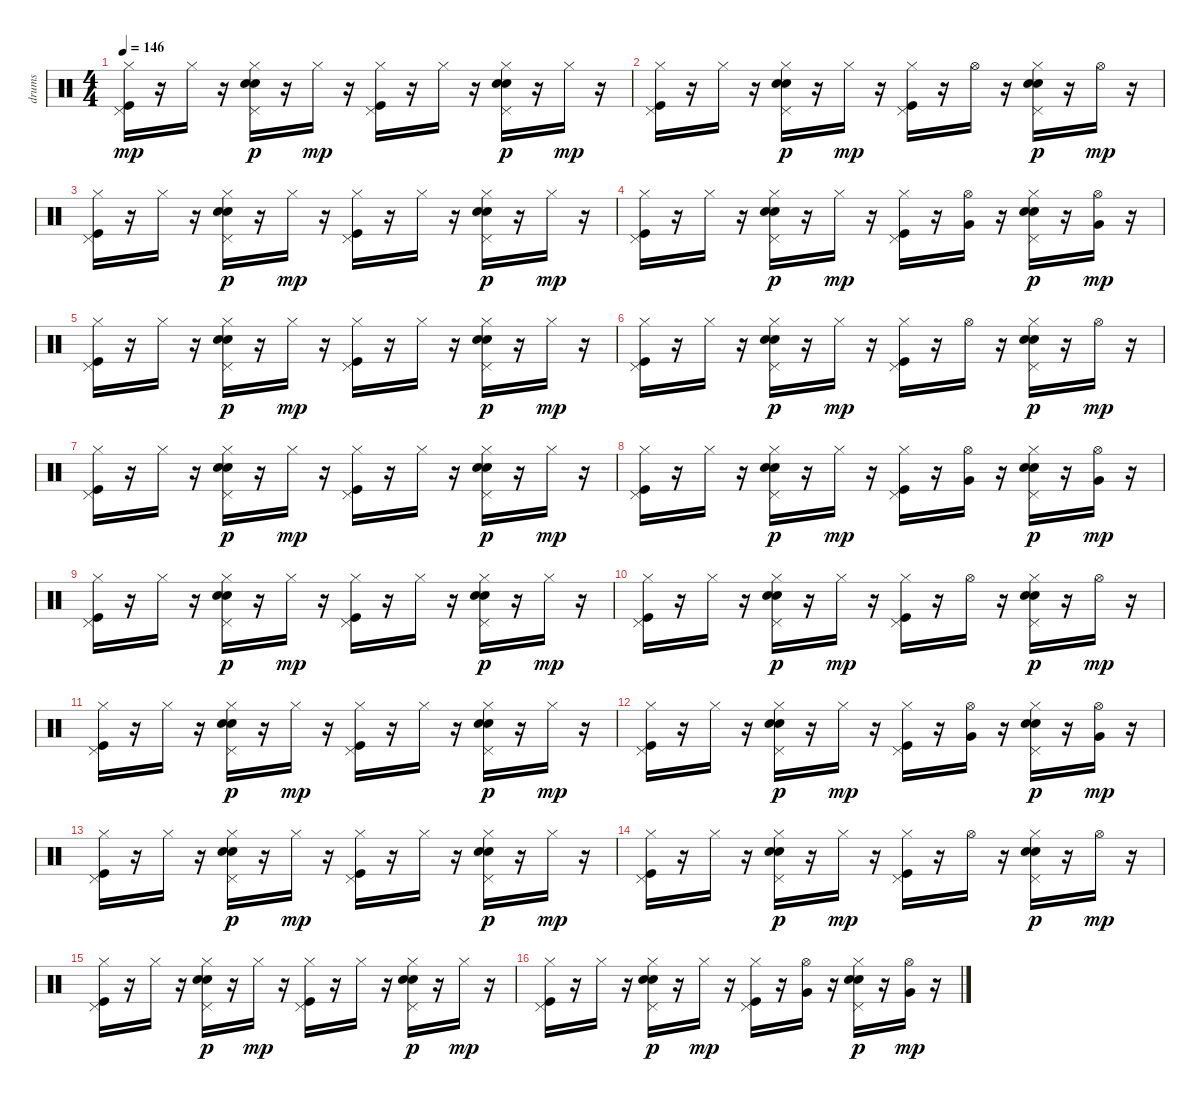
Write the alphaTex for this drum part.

\track ("drums" "drums") {instrument percussion}
\staff {score}
\articulation defaults
\ts (4 4)
\tempo 146
\clef neutral
\ks c
("Kick (hit)" "Pedal Hi-Hat (hit)" "Hi-Hat (closed)").16{dy mp} r.16 "Hi-Hat (closed)".16 r.16 ("Pedal Hi-Hat (hit)" "Snare (hit) 2" "Hi-Hat (closed)" "Electric Snare (hit)").16{dy p} r.16 "Hi-Hat (closed)".16{dy mp} r.16 ("Kick (hit)" "Pedal Hi-Hat (hit)" "Hi-Hat (closed)").16 r.16 "Hi-Hat (closed)".16 r.16 ("Pedal Hi-Hat (hit)" "Snare (hit) 2" "Hi-Hat (closed)" "Electric Snare (hit)").16{dy p} r.16 "Hi-Hat (closed)".16{dy mp} r.16 |
("Kick (hit)" "Pedal Hi-Hat (hit)" "Hi-Hat (closed)").16 r.16 "Hi-Hat (closed)".16 r.16 ("Pedal Hi-Hat (hit)" "Snare (hit) 2" "Hi-Hat (closed)" "Electric Snare (hit)").16{dy p} r.16 "Hi-Hat (closed)".16{dy mp} r.16 ("Kick (hit)" "Pedal Hi-Hat (hit)" "Hi-Hat (closed)").16 r.16 "Hi-Hat (open)".16 r.16 ("Pedal Hi-Hat (hit)" "Snare (hit) 2" "Hi-Hat (closed)" "Electric Snare (hit)").16{dy p} r.16 "Hi-Hat (open)".16{dy mp} r.16 |
("Kick (hit)" "Pedal Hi-Hat (hit)" "Hi-Hat (closed)").16 r.16 "Hi-Hat (closed)".16 r.16 ("Pedal Hi-Hat (hit)" "Snare (hit) 2" "Hi-Hat (closed)" "Electric Snare (hit)").16{dy p} r.16 "Hi-Hat (closed)".16{dy mp} r.16 ("Kick (hit)" "Pedal Hi-Hat (hit)" "Hi-Hat (closed)").16 r.16 "Hi-Hat (closed)".16 r.16 ("Pedal Hi-Hat (hit)" "Snare (hit) 2" "Hi-Hat (closed)" "Electric Snare (hit)").16{dy p} r.16 "Hi-Hat (closed)".16{dy mp} r.16 |
("Kick (hit)" "Pedal Hi-Hat (hit)" "Hi-Hat (closed)").16 r.16 "Hi-Hat (closed)".16 r.16 ("Pedal Hi-Hat (hit)" "Snare (hit) 2" "Hi-Hat (closed)" "Electric Snare (hit)").16{dy p} r.16 "Hi-Hat (closed)".16{dy mp} r.16 ("Kick (hit)" "Pedal Hi-Hat (hit)" "Hi-Hat (closed)").16 r.16 ("Hi-Hat (open)" "Very Low Tom (hit)").16 r.16 ("Pedal Hi-Hat (hit)" "Snare (hit) 2" "Hi-Hat (closed)" "Electric Snare (hit)").16{dy p} r.16 ("Hi-Hat (open)" "Very Low Tom (hit)").16{dy mp} r.16 |
("Kick (hit)" "Pedal Hi-Hat (hit)" "Hi-Hat (closed)").16 r.16 "Hi-Hat (closed)".16 r.16 ("Pedal Hi-Hat (hit)" "Snare (hit) 2" "Hi-Hat (closed)" "Electric Snare (hit)").16{dy p} r.16 "Hi-Hat (closed)".16{dy mp} r.16 ("Kick (hit)" "Pedal Hi-Hat (hit)" "Hi-Hat (closed)").16 r.16 "Hi-Hat (closed)".16 r.16 ("Pedal Hi-Hat (hit)" "Snare (hit) 2" "Hi-Hat (closed)" "Electric Snare (hit)").16{dy p} r.16 "Hi-Hat (closed)".16{dy mp} r.16 |
("Kick (hit)" "Pedal Hi-Hat (hit)" "Hi-Hat (closed)").16 r.16 "Hi-Hat (closed)".16 r.16 ("Pedal Hi-Hat (hit)" "Snare (hit) 2" "Hi-Hat (closed)" "Electric Snare (hit)").16{dy p} r.16 "Hi-Hat (closed)".16{dy mp} r.16 ("Kick (hit)" "Pedal Hi-Hat (hit)" "Hi-Hat (closed)").16 r.16 "Hi-Hat (open)".16 r.16 ("Pedal Hi-Hat (hit)" "Snare (hit) 2" "Hi-Hat (closed)" "Electric Snare (hit)").16{dy p} r.16 "Hi-Hat (open)".16{dy mp} r.16 |
("Kick (hit)" "Pedal Hi-Hat (hit)" "Hi-Hat (closed)").16 r.16 "Hi-Hat (closed)".16 r.16 ("Pedal Hi-Hat (hit)" "Snare (hit) 2" "Hi-Hat (closed)" "Electric Snare (hit)").16{dy p} r.16 "Hi-Hat (closed)".16{dy mp} r.16 ("Kick (hit)" "Pedal Hi-Hat (hit)" "Hi-Hat (closed)").16 r.16 "Hi-Hat (closed)".16 r.16 ("Pedal Hi-Hat (hit)" "Snare (hit) 2" "Hi-Hat (closed)" "Electric Snare (hit)").16{dy p} r.16 "Hi-Hat (closed)".16{dy mp} r.16 |
("Kick (hit)" "Pedal Hi-Hat (hit)" "Hi-Hat (closed)").16 r.16 "Hi-Hat (closed)".16 r.16 ("Pedal Hi-Hat (hit)" "Snare (hit) 2" "Hi-Hat (closed)" "Electric Snare (hit)").16{dy p} r.16 "Hi-Hat (closed)".16{dy mp} r.16 ("Kick (hit)" "Pedal Hi-Hat (hit)" "Hi-Hat (closed)").16 r.16 ("Hi-Hat (open)" "Very Low Tom (hit)").16 r.16 ("Pedal Hi-Hat (hit)" "Snare (hit) 2" "Hi-Hat (closed)" "Electric Snare (hit)").16{dy p} r.16 ("Hi-Hat (open)" "Very Low Tom (hit)").16{dy mp} r.16 |
("Kick (hit)" "Pedal Hi-Hat (hit)" "Hi-Hat (closed)").16 r.16 "Hi-Hat (closed)".16 r.16 ("Pedal Hi-Hat (hit)" "Snare (hit) 2" "Hi-Hat (closed)" "Electric Snare (hit)").16{dy p} r.16 "Hi-Hat (closed)".16{dy mp} r.16 ("Kick (hit)" "Pedal Hi-Hat (hit)" "Hi-Hat (closed)").16 r.16 "Hi-Hat (closed)".16 r.16 ("Pedal Hi-Hat (hit)" "Snare (hit) 2" "Hi-Hat (closed)" "Electric Snare (hit)").16{dy p} r.16 "Hi-Hat (closed)".16{dy mp} r.16 |
("Kick (hit)" "Pedal Hi-Hat (hit)" "Hi-Hat (closed)").16 r.16 "Hi-Hat (closed)".16 r.16 ("Pedal Hi-Hat (hit)" "Snare (hit) 2" "Hi-Hat (closed)" "Electric Snare (hit)").16{dy p} r.16 "Hi-Hat (closed)".16{dy mp} r.16 ("Kick (hit)" "Pedal Hi-Hat (hit)" "Hi-Hat (closed)").16 r.16 "Hi-Hat (open)".16 r.16 ("Pedal Hi-Hat (hit)" "Snare (hit) 2" "Hi-Hat (closed)" "Electric Snare (hit)").16{dy p} r.16 "Hi-Hat (open)".16{dy mp} r.16 |
("Kick (hit)" "Pedal Hi-Hat (hit)" "Hi-Hat (closed)").16 r.16 "Hi-Hat (closed)".16 r.16 ("Pedal Hi-Hat (hit)" "Snare (hit) 2" "Hi-Hat (closed)" "Electric Snare (hit)").16{dy p} r.16 "Hi-Hat (closed)".16{dy mp} r.16 ("Kick (hit)" "Pedal Hi-Hat (hit)" "Hi-Hat (closed)").16 r.16 "Hi-Hat (closed)".16 r.16 ("Pedal Hi-Hat (hit)" "Snare (hit) 2" "Hi-Hat (closed)" "Electric Snare (hit)").16{dy p} r.16 "Hi-Hat (closed)".16{dy mp} r.16 |
("Kick (hit)" "Pedal Hi-Hat (hit)" "Hi-Hat (closed)").16 r.16 "Hi-Hat (closed)".16 r.16 ("Pedal Hi-Hat (hit)" "Snare (hit) 2" "Hi-Hat (closed)" "Electric Snare (hit)").16{dy p} r.16 "Hi-Hat (closed)".16{dy mp} r.16 ("Kick (hit)" "Pedal Hi-Hat (hit)" "Hi-Hat (closed)").16 r.16 ("Hi-Hat (open)" "Very Low Tom (hit)").16 r.16 ("Pedal Hi-Hat (hit)" "Snare (hit) 2" "Hi-Hat (closed)" "Electric Snare (hit)").16{dy p} r.16 ("Hi-Hat (open)" "Very Low Tom (hit)").16{dy mp} r.16 |
("Kick (hit)" "Pedal Hi-Hat (hit)" "Hi-Hat (closed)").16 r.16 "Hi-Hat (closed)".16 r.16 ("Pedal Hi-Hat (hit)" "Snare (hit) 2" "Hi-Hat (closed)" "Electric Snare (hit)").16{dy p} r.16 "Hi-Hat (closed)".16{dy mp} r.16 ("Kick (hit)" "Pedal Hi-Hat (hit)" "Hi-Hat (closed)").16 r.16 "Hi-Hat (closed)".16 r.16 ("Pedal Hi-Hat (hit)" "Snare (hit) 2" "Hi-Hat (closed)" "Electric Snare (hit)").16{dy p} r.16 "Hi-Hat (closed)".16{dy mp} r.16 |
("Kick (hit)" "Pedal Hi-Hat (hit)" "Hi-Hat (closed)").16 r.16 "Hi-Hat (closed)".16 r.16 ("Pedal Hi-Hat (hit)" "Snare (hit) 2" "Hi-Hat (closed)" "Electric Snare (hit)").16{dy p} r.16 "Hi-Hat (closed)".16{dy mp} r.16 ("Kick (hit)" "Pedal Hi-Hat (hit)" "Hi-Hat (closed)").16 r.16 "Hi-Hat (open)".16 r.16 ("Pedal Hi-Hat (hit)" "Snare (hit) 2" "Hi-Hat (closed)" "Electric Snare (hit)").16{dy p} r.16 "Hi-Hat (open)".16{dy mp} r.16 |
("Kick (hit)" "Pedal Hi-Hat (hit)" "Hi-Hat (closed)").16 r.16 "Hi-Hat (closed)".16 r.16 ("Pedal Hi-Hat (hit)" "Snare (hit) 2" "Hi-Hat (closed)" "Electric Snare (hit)").16{dy p} r.16 "Hi-Hat (closed)".16{dy mp} r.16 ("Kick (hit)" "Pedal Hi-Hat (hit)" "Hi-Hat (closed)").16 r.16 "Hi-Hat (closed)".16 r.16 ("Pedal Hi-Hat (hit)" "Snare (hit) 2" "Hi-Hat (closed)" "Electric Snare (hit)").16{dy p} r.16 "Hi-Hat (closed)".16{dy mp} r.16 |
("Kick (hit)" "Pedal Hi-Hat (hit)" "Hi-Hat (closed)").16 r.16 "Hi-Hat (closed)".16 r.16 ("Pedal Hi-Hat (hit)" "Snare (hit) 2" "Hi-Hat (closed)" "Electric Snare (hit)").16{dy p} r.16 "Hi-Hat (closed)".16{dy mp} r.16 ("Kick (hit)" "Pedal Hi-Hat (hit)" "Hi-Hat (closed)").16 r.16 ("Hi-Hat (open)" "Very Low Tom (hit)").16 r.16 ("Pedal Hi-Hat (hit)" "Snare (hit) 2" "Hi-Hat (closed)" "Electric Snare (hit)").16{dy p} r.16 ("Hi-Hat (open)" "Very Low Tom (hit)").16{dy mp} r.16
